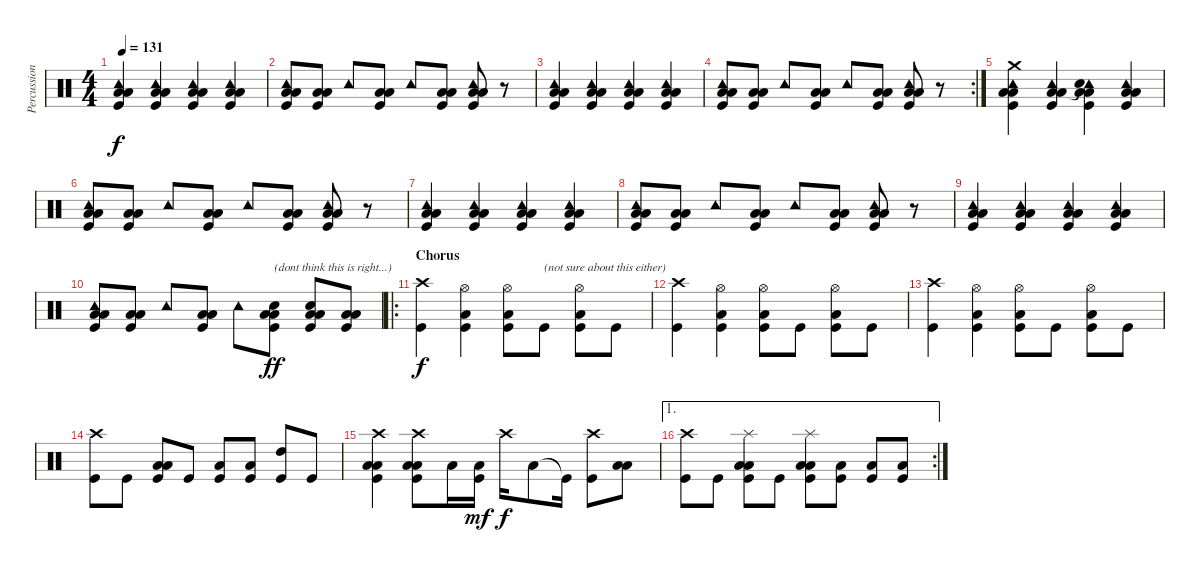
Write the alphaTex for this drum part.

\track ("Percussion" "Percussion") {instrument percussion}
\staff {score}
\articulation defaults
\ts (4 4)
\tempo 131
\clef neutral
\ks c
("Tambourine (hit)" "Low Tom (hit)" "Low Floor Tom (hit)" "Kick (hit)").4{dy f} ("Tambourine (hit)" "Low Tom (hit)" "Low Floor Tom (hit)" "Kick (hit)").4 ("Tambourine (hit)" "Low Tom (hit)" "Low Floor Tom (hit)" "Kick (hit)").4 ("Tambourine (hit)" "Low Tom (hit)" "Low Floor Tom (hit)" "Kick (hit)").4 |
("Tambourine (hit)" "Low Tom (hit)" "Low Floor Tom (hit)" "Kick (hit)").8 ("Low Tom (hit)" "Low Floor Tom (hit)" "Kick (hit)").8 "Tambourine (hit)".8 ("Low Tom (hit)" "Low Floor Tom (hit)" "Kick (hit)").8 "Tambourine (hit)".8 ("Low Tom (hit)" "Low Floor Tom (hit)" "Kick (hit)").8 ("Tambourine (hit)" "Low Tom (hit)" "Low Floor Tom (hit)" "Kick (hit)").8 r.8 |
("Tambourine (hit)" "Low Tom (hit)" "Low Floor Tom (hit)" "Kick (hit)").4 ("Tambourine (hit)" "Low Tom (hit)" "Low Floor Tom (hit)" "Kick (hit)").4 ("Tambourine (hit)" "Low Tom (hit)" "Low Floor Tom (hit)" "Kick (hit)").4 ("Tambourine (hit)" "Low Tom (hit)" "Low Floor Tom (hit)" "Kick (hit)").4 |
\rc 2
("Tambourine (hit)" "Low Tom (hit)" "Low Floor Tom (hit)" "Kick (hit)").8 ("Low Tom (hit)" "Low Floor Tom (hit)" "Kick (hit)").8 "Tambourine (hit)".8 ("Low Tom (hit)" "Low Floor Tom (hit)" "Kick (hit)").8 "Tambourine (hit)".8 ("Low Tom (hit)" "Low Floor Tom (hit)" "Kick (hit)").8 ("Tambourine (hit)" "Low Tom (hit)" "Low Floor Tom (hit)" "Kick (hit)").8 r.8 |
("Tambourine (hit)" "Crash medium (hit)" "Low Tom (hit)" "Low Floor Tom (hit)" "Kick (hit)").4 ("Tambourine (hit)" "Low Tom (hit)" "Low Floor Tom (hit)" "Kick (hit)").4 ("Tambourine (hit)" "Snare (hit)"{t} "Low Tom (hit)" "Low Floor Tom (hit)" "Kick (hit)").4 ("Tambourine (hit)" "Low Tom (hit)" "Low Floor Tom (hit)" "Kick (hit)").4 |
("Tambourine (hit)" "Low Tom (hit)" "Low Floor Tom (hit)" "Kick (hit)").8 ("Low Tom (hit)" "Low Floor Tom (hit)" "Kick (hit)").8 "Tambourine (hit)".8 ("Low Tom (hit)" "Low Floor Tom (hit)" "Kick (hit)").8 "Tambourine (hit)".8 ("Low Tom (hit)" "Low Floor Tom (hit)" "Kick (hit)").8 ("Tambourine (hit)" "Low Tom (hit)" "Low Floor Tom (hit)" "Kick (hit)").8 r.8 |
("Tambourine (hit)" "Low Tom (hit)" "Low Floor Tom (hit)" "Kick (hit)").4 ("Tambourine (hit)" "Low Tom (hit)" "Low Floor Tom (hit)" "Kick (hit)").4 ("Tambourine (hit)" "Low Tom (hit)" "Low Floor Tom (hit)" "Kick (hit)").4 ("Tambourine (hit)" "Low Tom (hit)" "Low Floor Tom (hit)" "Kick (hit)").4 |
("Tambourine (hit)" "Low Tom (hit)" "Low Floor Tom (hit)" "Kick (hit)").8 ("Low Tom (hit)" "Low Floor Tom (hit)" "Kick (hit)").8 "Tambourine (hit)".8 ("Low Tom (hit)" "Low Floor Tom (hit)" "Kick (hit)").8 "Tambourine (hit)".8 ("Low Tom (hit)" "Low Floor Tom (hit)" "Kick (hit)").8 ("Tambourine (hit)" "Low Tom (hit)" "Low Floor Tom (hit)" "Kick (hit)").8 r.8 |
("Tambourine (hit)" "Low Tom (hit)" "Low Floor Tom (hit)" "Kick (hit)").4 ("Tambourine (hit)" "Low Tom (hit)" "Low Floor Tom (hit)" "Kick (hit)").4 ("Tambourine (hit)" "Low Tom (hit)" "Low Floor Tom (hit)" "Kick (hit)").4 ("Tambourine (hit)" "Low Tom (hit)" "Low Floor Tom (hit)" "Kick (hit)").4 |
("Tambourine (hit)" "Low Tom (hit)" "Low Floor Tom (hit)" "Kick (hit)").8 ("Low Tom (hit)" "Low Floor Tom (hit)" "Kick (hit)").8 "Tambourine (hit)".8 ("Low Tom (hit)" "Low Floor Tom (hit)" "Kick (hit)").8 "Tambourine (hit)".8 ("Snare (hit) 2" "Low Tom (hit)" "Low Floor Tom (hit)" "Kick (hit)").8{txt "(dont think this is right...)" dy ff} ("Snare (hit) 2" "Low Tom (hit)" "Low Floor Tom (hit)" "Kick (hit)").8 ("Low Tom (hit)" "Low Floor Tom (hit)" "Kick (hit)").8 |
\ro
\section ("" "Chorus")
("Crash high (hit)" "Kick (hit)").4{dy f} ("Hi-Hat (open)" "Low Tom (hit)" "Kick (hit)").4 ("Hi-Hat (open)" "Low Tom (hit)" "Kick (hit)").8 "Kick (hit)".8{txt "(not sure about this either)"} ("Hi-Hat (open)" "Low Tom (hit)" "Kick (hit)").8 "Kick (hit)".8 |
("Crash high (hit)" "Kick (hit)").4 ("Hi-Hat (open)" "Low Tom (hit)" "Kick (hit)").4 ("Hi-Hat (open)" "Low Tom (hit)" "Kick (hit)").8 "Kick (hit)".8 ("Hi-Hat (open)" "Low Tom (hit)" "Kick (hit)").8 "Kick (hit)".8 |
("Crash high (hit)" "Kick (hit)").4 ("Hi-Hat (open)" "Low Tom (hit)" "Kick (hit)").4 ("Hi-Hat (open)" "Low Tom (hit)" "Kick (hit)").8 "Kick (hit)".8 ("Hi-Hat (open)" "Low Tom (hit)" "Kick (hit)").8 "Kick (hit)".8 |
("Crash high (hit)" "Kick (hit)").8 "Kick (hit)".8 ("Low Tom (hit)" "Low Floor Tom (hit)" "Kick (hit)").8 "Kick (hit)".8 ("Low Tom (hit)" "Kick (hit)").8 ("Low Tom (hit)" "Kick (hit)").8 ("High Tom (hit)" "Kick (hit)").8 "Kick (hit)".8 |
("Crash high (hit)" "Low Tom (hit)" "Low Floor Tom (hit)" "Kick (hit)").4 ("Crash high (hit)" "Low Tom (hit)" "Low Floor Tom (hit)" "Kick (hit)").8 "Low Tom (hit)".16 ("Low Tom (hit)" "Kick (hit)").16{dy mf} "Crash high (hit)".16{dy f} "Low Tom (hit)".8 "Kick (hit)"{t}.16 ("Crash high (hit)" "Kick (hit)").8 ("Low Tom (hit)" "Low Floor Tom (hit)").8 |
\ae 1
\rc 2
("Crash high (hit)" "Kick (hit)").8 "Kick (hit)".8 ("Splash (hit)" "Low Tom (hit)" "Low Floor Tom (hit)" "Kick (hit)").8 "Kick (hit)".8 ("Splash (hit)" "Low Tom (hit)" "Low Floor Tom (hit)" "Kick (hit)").8 ("Low Tom (hit)" "Kick (hit)").8 ("Low Tom (hit)" "Kick (hit)").8 ("Low Floor Tom (hit)" "Kick (hit)").8
